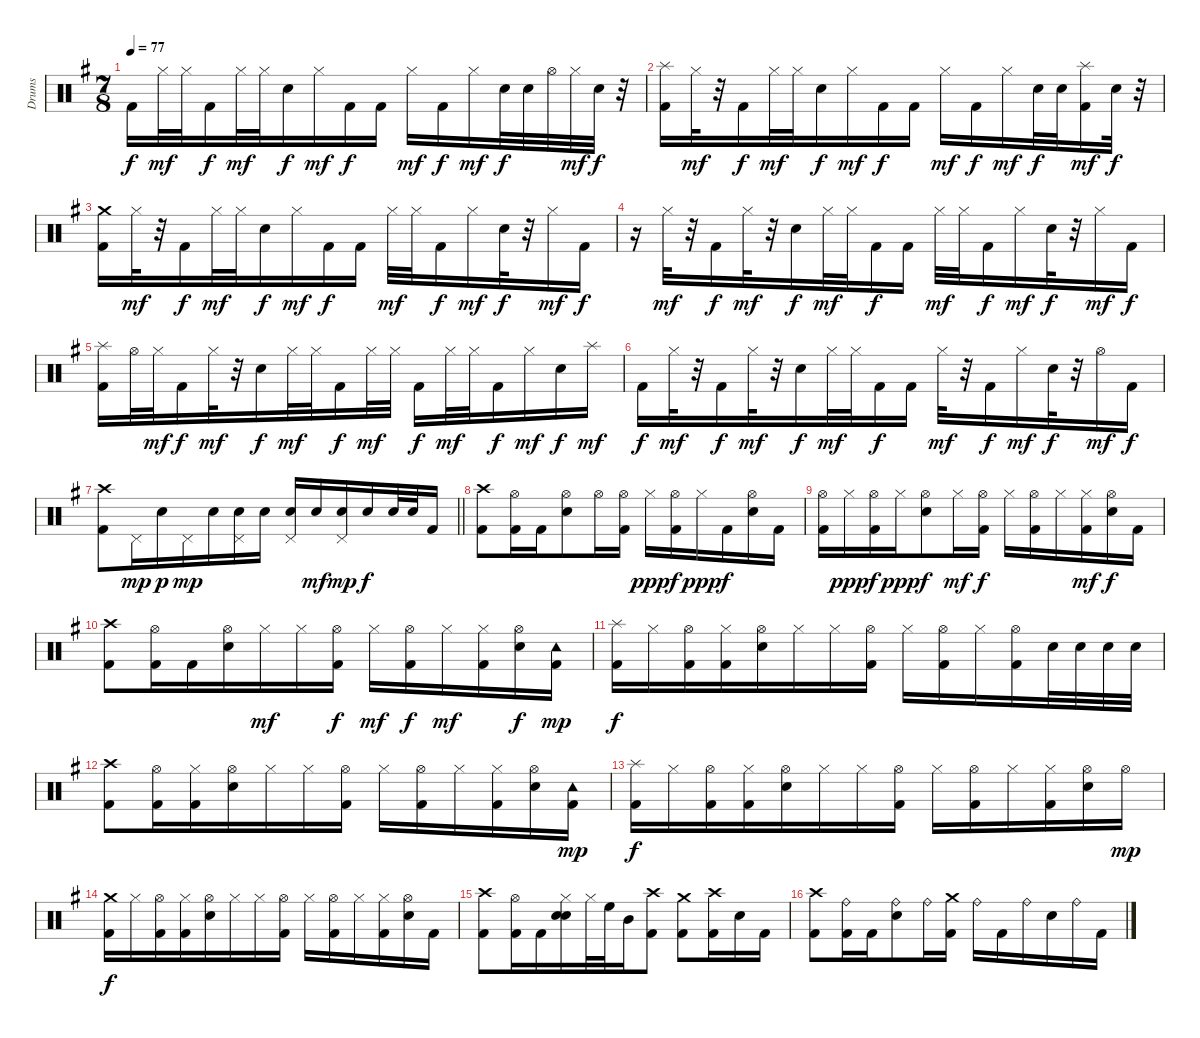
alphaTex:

\track ("Drums" "Drums") {instrument percussion}
\staff {score}
\articulation defaults
\ts (7 8)
\tempo 77
\clef neutral
\ks g "Kick (hit) 2".16{dy f} "Hi-Hat (closed)".32{dy mf} "Hi-Hat (closed)".32 "Kick (hit) 2".16{dy f} "Hi-Hat (closed)".32{dy mf} "Hi-Hat (closed)".32 "Electric Snare (hit)".16{dy f} "Hi-Hat (closed)".16{dy mf} "Kick (hit) 2".16{dy f} "Kick (hit) 2".16 "Hi-Hat (closed)".16{dy mf} "Kick (hit) 2".16{dy f} "Hi-Hat (closed)".16{dy mf} "Electric Snare (hit)".32{dy f} "Electric Snare (hit)".32 "Hi-Hat (open)".32 "Hi-Hat (closed)".32{dy mf} "Electric Snare (hit)".32{dy f}
r.32 |
("Kick (hit) 2" "Splash (hit)").16 "Hi-Hat (closed)".32{dy mf} r.32 "Kick (hit) 2".16{dy f} "Hi-Hat (closed)".32{dy mf} "Hi-Hat (closed)".32 "Electric Snare (hit)".16{dy f} "Hi-Hat (closed)".16{dy mf} "Kick (hit) 2".16{dy f} "Kick (hit) 2".16 "Hi-Hat (closed)".16{dy mf} "Kick (hit) 2".16{dy f} "Hi-Hat (closed)".16{dy mf} "Electric Snare (hit)".32{dy f} "Electric Snare (hit)".32 ("Kick (hit) 2" "Splash (hit)").16{dy mf} "Electric Snare (hit)".32{dy f} r.32 |
("Kick (hit) 2" "Crash medium (hit)").16 "Hi-Hat (closed)".32{dy mf} r.32 "Kick (hit) 2".16{dy f} "Hi-Hat (closed)".32{dy mf} "Hi-Hat (closed)".32 "Electric Snare (hit)".16{dy f} "Hi-Hat (closed)".16{dy mf} "Kick (hit) 2".16{dy f} "Kick (hit) 2".16 "Hi-Hat (closed)".32{dy mf} "Hi-Hat (closed)".32 "Kick (hit) 2".16{dy f} "Hi-Hat (closed)".16{dy mf} "Electric Snare (hit)".32{dy f} r.32 "Hi-Hat (closed)".16{dy mf} "Kick (hit) 2".16{dy f} |
r.16 "Hi-Hat (closed)".32{dy mf} r.32 "Kick (hit) 2".16{dy f} "Hi-Hat (closed)".32{dy mf} r.32 "Electric Snare (hit)".16{dy f} "Hi-Hat (closed)".32{dy mf} "Hi-Hat (closed)".32 "Kick (hit) 2".16{dy f} "Kick (hit) 2".16 "Hi-Hat (closed)".32{dy mf} "Hi-Hat (closed)".32 "Kick (hit) 2".16{dy f} "Hi-Hat (closed)".16{dy mf} "Electric Snare (hit)".32{dy f} r.32 "Hi-Hat (closed)".16{dy mf} "Kick (hit) 2".16{dy f} |
("Kick (hit) 2" "Splash (hit)").16 "Hi-Hat (open)".32 "Hi-Hat (closed)".32{dy mf} "Kick (hit) 2".16{dy f} "Hi-Hat (closed)".32{dy mf} r.32 "Electric Snare (hit)".16{dy f} "Hi-Hat (closed)".32{dy mf} "Hi-Hat (closed)".32 "Kick (hit) 2".16{dy f} "Hi-Hat (closed)".32{dy mf} "Hi-Hat (closed)".32 "Kick (hit) 2".16{dy f} "Hi-Hat (closed)".32{dy mf} "Hi-Hat (closed)".32 "Kick (hit) 2".16{dy f} "Hi-Hat (closed)".16{dy mf} "Electric Snare (hit)".16{dy f} "Splash (hit)".16{dy mf} |
"Kick (hit) 2".16{dy f} "Hi-Hat (closed)".32{dy mf} r.32 "Kick (hit) 2".16{dy f} "Hi-Hat (closed)".32{dy mf} r.32 "Electric Snare (hit)".16{dy f} "Hi-Hat (closed)".32{dy mf} "Hi-Hat (closed)".32 "Kick (hit) 2".16{dy f} "Kick (hit) 2".16 "Hi-Hat (closed)".32{dy mf} r.32 "Kick (hit) 2".16{dy f} "Hi-Hat (closed)".16{dy mf} "Electric Snare (hit)".32{dy f} r.32 "Hi-Hat (open)".16{dy mf} "Kick (hit) 2".16{dy f} |
\barLineRight lightlight
("Kick (hit) 2" "Crash high (hit)").8 "Pedal Hi-Hat (hit)".16{dy mp} "Electric Snare (hit)".16{dy p} "Pedal Hi-Hat (hit)".16{dy mp} "Electric Snare (hit)".16 ("Electric Snare (hit)" "Pedal Hi-Hat (hit)").16 "Electric Snare (hit)".16 ("Electric Snare (hit)" "Pedal Hi-Hat (hit)").16 "Electric Snare (hit)".16{dy mf} ("Electric Snare (hit)" "Pedal Hi-Hat (hit)").16{dy mp} "Electric Snare (hit)".16{dy f} "Electric Snare (hit)".32 "Electric Snare (hit)".32 "Kick (hit) 2".16 |
("Crash high (hit)" "Kick (hit) 2").8 ("Kick (hit) 2" "Hi-Hat (open)").16 "Kick (hit) 2".16 ("Electric Snare (hit)" "Hi-Hat (open)").8 "Hi-Hat (open)".16 ("Kick (hit) 2" "Hi-Hat (open)").16 "Hi-Hat (closed)".16{dy ppp} ("Kick (hit) 2" "Hi-Hat (open)").16{dy f} "Hi-Hat (closed)".16{dy ppp} "Kick (hit) 2".16{dy f} ("Electric Snare (hit)" "Hi-Hat (open)").16 "Kick (hit) 2".16 |
("Hi-Hat (open)" "Kick (hit) 2").16 "Hi-Hat (closed)".16{dy ppp} ("Kick (hit) 2" "Hi-Hat (open)").16{dy f} "Hi-Hat (closed)".16{dy ppp} ("Electric Snare (hit)" "Hi-Hat (open)").8{dy f} "Hi-Hat (closed)".16{dy mf} ("Kick (hit) 2" "Hi-Hat (open)").16{dy f} "Hi-Hat (closed)".16 ("Kick (hit) 2" "Hi-Hat (open)").16 "Hi-Hat (closed)".16 ("Kick (hit) 2" "Hi-Hat (closed)").16{dy mf} ("Electric Snare (hit)" "Hi-Hat (open)").16{dy f} "Kick (hit) 2".16 |
("Kick (hit) 2" "Crash high (hit)").8 ("Kick (hit) 2" "Hi-Hat (open)").16 "Kick (hit) 2".16 ("Electric Snare (hit)" "Hi-Hat (open)").16 "Hi-Hat (closed)".16{dy mf} "Hi-Hat (closed)".16 ("Kick (hit) 2" "Hi-Hat (open)").16{dy f} "Hi-Hat (closed)".16{dy mf} ("Kick (hit) 2" "Hi-Hat (open)").16{dy f} "Hi-Hat (closed)".16{dy mf} ("Kick (hit) 2" "Hi-Hat (closed)").16 ("Electric Snare (hit)" "Hi-Hat (open)").16{dy f} ("Kick (hit) 2" "Tambourine (hit)").16{dy mp} |
("Kick (hit) 2" "Splash (hit)").16{dy f} "Hi-Hat (closed)".16 ("Kick (hit) 2" "Hi-Hat (open)").16 ("Kick (hit) 2" "Hi-Hat (closed)").16 ("Electric Snare (hit)" "Hi-Hat (open)").16 "Hi-Hat (closed)".16 "Hi-Hat (closed)".16 ("Kick (hit) 2" "Hi-Hat (open)").16 "Hi-Hat (closed)".16 ("Kick (hit) 2" "Hi-Hat (open)").16 "Hi-Hat (closed)".16 ("Hi-Hat (open)" "Kick (hit) 2").16 "Electric Snare (hit)".32 "Electric Snare (hit)".32 "Electric Snare (hit)".32 "Electric Snare (hit)".32 |
("Kick (hit) 2" "Crash high (hit)").8 ("Kick (hit) 2" "Hi-Hat (open)").16 ("Kick (hit) 2" "Hi-Hat (closed)").16 ("Electric Snare (hit)" "Hi-Hat (open)").16 "Hi-Hat (closed)".16 "Hi-Hat (closed)".16 ("Kick (hit) 2" "Hi-Hat (open)").16 "Hi-Hat (closed)".16 ("Kick (hit) 2" "Hi-Hat (open)").16 "Hi-Hat (closed)".16 ("Kick (hit) 2" "Hi-Hat (closed)").16 ("Electric Snare (hit)" "Hi-Hat (open)").16 ("Kick (hit) 2" "Tambourine (hit)").16{dy mp} |
("Kick (hit) 2" "Splash (hit)").16{dy f} "Hi-Hat (closed)".16 ("Kick (hit) 2" "Hi-Hat (open)").16 ("Kick (hit) 2" "Hi-Hat (closed)").16 ("Electric Snare (hit)" "Hi-Hat (open)").16 "Hi-Hat (closed)".16 "Hi-Hat (closed)".16 ("Kick (hit) 2" "Hi-Hat (open)").16 "Hi-Hat (closed)".16 ("Kick (hit) 2" "Hi-Hat (open)").16 "Hi-Hat (closed)".16 ("Kick (hit) 2" "Hi-Hat (closed)").16 ("Electric Snare (hit)" "Hi-Hat (open)").16 "Hi-Hat (open)".16{dy mp} |
("Kick (hit) 2" "Crash medium (hit)").16{dy f} "Hi-Hat (closed)".16 ("Kick (hit) 2" "Hi-Hat (open)").16 ("Kick (hit) 2" "Hi-Hat (closed)").16 ("Electric Snare (hit)" "Hi-Hat (open)").16 "Hi-Hat (closed)".16 "Hi-Hat (closed)".16 ("Kick (hit) 2" "Hi-Hat (open)").16 "Hi-Hat (closed)".16 ("Kick (hit) 2" "Hi-Hat (open)").16 "Hi-Hat (closed)".16 ("Kick (hit) 2" "Hi-Hat (closed)").16 ("Electric Snare (hit)" "Hi-Hat (open)").16 "Kick (hit) 2".16 |
("Kick (hit) 2" "Crash high (hit)").8 ("Kick (hit) 2" "Hi-Hat (open)").16 "Kick (hit) 2".16 ("Electric Snare (hit)" "Hi-Hat (closed)" "Electric Snare (hit)").16 "Hi-Hat (closed)".32 "High Floor Tom (hit)".32 "Mid Tom (hit)".16 ("Kick (hit) 2" "Crash high (hit)").8 ("Kick (hit) 2" "Crash medium (hit)").8 ("Crash high (hit)" "Kick (hit) 2").16 "Electric Snare (hit)".16 "Kick (hit) 2".16 |
("Kick (hit) 2" "Crash high (hit)").8 ("Ride (bell)" "Kick (hit) 2").16 "Kick (hit) 2".16 ("Ride (bell)" "Electric Snare (hit)").8 "Ride (bell)".16 ("Kick (hit) 2" "Crash medium (hit)").16 "Ride (bell)".16 "Kick (hit) 2".16 "Ride (bell)".16 "Electric Snare (hit)".16 "Ride (bell)".16 "Kick (hit) 2".16
